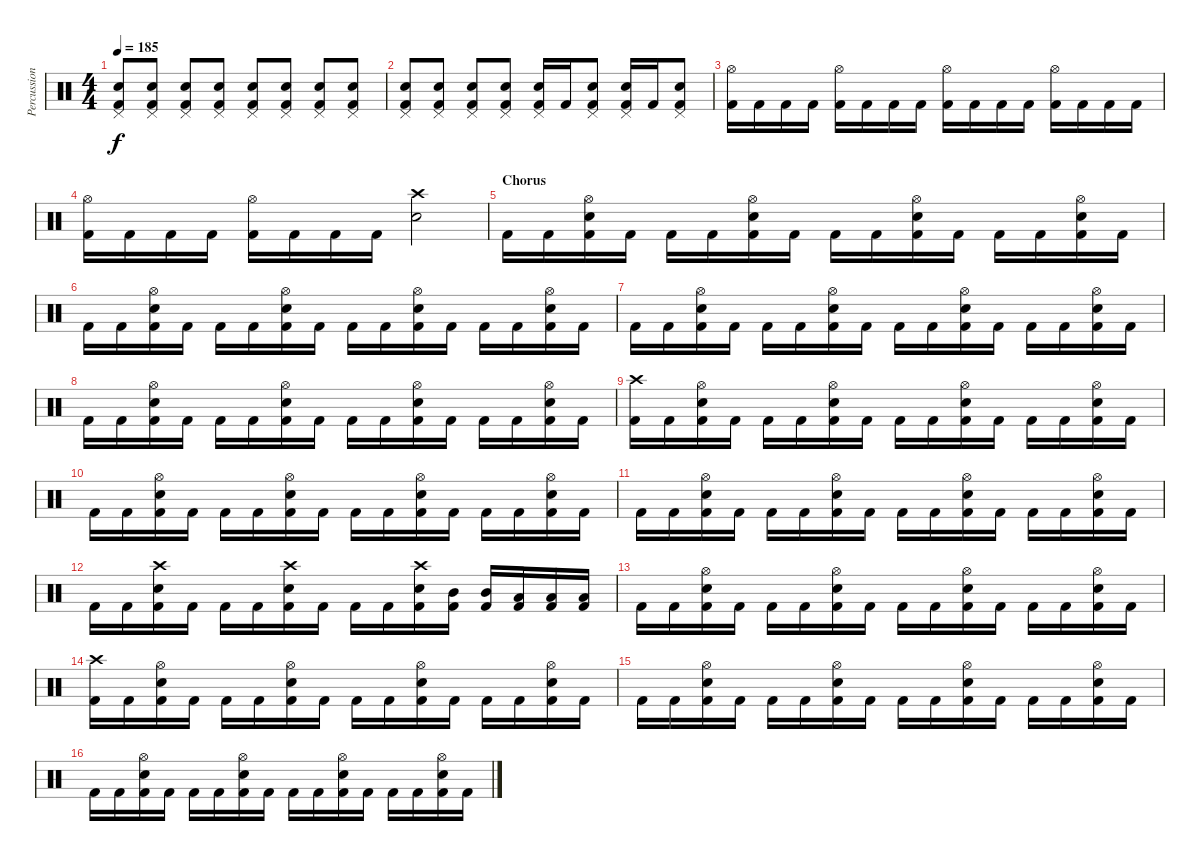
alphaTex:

\track ("Percussions" "Percussion") {instrument percussion}
\staff {score}
\articulation defaults
\ts (4 4)
\tempo 185
\clef neutral
\ks c
("Pedal Hi-Hat (hit)" "Snare (hit) 2" "Kick (hit) 2").8{dy f} ("Pedal Hi-Hat (hit)" "Snare (hit) 2" "Kick (hit) 2").8 ("Pedal Hi-Hat (hit)" "Snare (hit) 2" "Kick (hit) 2").8 ("Pedal Hi-Hat (hit)" "Snare (hit) 2" "Kick (hit) 2").8 ("Pedal Hi-Hat (hit)" "Snare (hit) 2" "Kick (hit) 2").8 ("Pedal Hi-Hat (hit)" "Snare (hit) 2" "Kick (hit) 2").8 ("Pedal Hi-Hat (hit)" "Snare (hit) 2" "Kick (hit) 2").8 ("Pedal Hi-Hat (hit)" "Snare (hit) 2" "Kick (hit) 2").8 |
("Pedal Hi-Hat (hit)" "Snare (hit) 2" "Kick (hit) 2").8 ("Pedal Hi-Hat (hit)" "Snare (hit) 2" "Kick (hit) 2").8 ("Pedal Hi-Hat (hit)" "Snare (hit) 2" "Kick (hit) 2").8 ("Pedal Hi-Hat (hit)" "Snare (hit) 2" "Kick (hit) 2").8 ("Pedal Hi-Hat (hit)" "Snare (hit) 2" "Kick (hit) 2").16 "Kick (hit) 2".16 ("Pedal Hi-Hat (hit)" "Snare (hit) 2" "Kick (hit) 2").8 ("Pedal Hi-Hat (hit)" "Snare (hit) 2" "Kick (hit) 2").16 "Kick (hit) 2".16 ("Pedal Hi-Hat (hit)" "Snare (hit) 2" "Kick (hit) 2").8 |
("Hi-Hat (open)" "Kick (hit) 2").16 "Kick (hit) 2".16 "Kick (hit) 2".16 "Kick (hit) 2".16 ("Hi-Hat (open)" "Kick (hit) 2").16 "Kick (hit) 2".16 "Kick (hit) 2".16 "Kick (hit) 2".16 ("Hi-Hat (open)" "Kick (hit) 2").16 "Kick (hit) 2".16 "Kick (hit) 2".16 "Kick (hit) 2".16 ("Hi-Hat (open)" "Kick (hit) 2").16 "Kick (hit) 2".16 "Kick (hit) 2".16 "Kick (hit) 2".16 |
("Hi-Hat (open)" "Kick (hit) 2").16 "Kick (hit) 2".16 "Kick (hit) 2".16 "Kick (hit) 2".16 ("Hi-Hat (open)" "Kick (hit) 2").16 "Kick (hit) 2".16 "Kick (hit) 2".16 "Kick (hit) 2".16 ("Crash high (hit)" "Snare (hit) 2").2 |
\section ("" "Chorus")
"Kick (hit) 2".16 "Kick (hit) 2".16 ("Hi-Hat (open)" "Snare (hit) 2" "Kick (hit) 2").16 "Kick (hit) 2".16 "Kick (hit) 2".16 "Kick (hit) 2".16 ("Hi-Hat (open)" "Snare (hit) 2" "Kick (hit) 2").16 "Kick (hit) 2".16 "Kick (hit) 2".16 "Kick (hit) 2".16 ("Hi-Hat (open)" "Snare (hit) 2" "Kick (hit) 2").16 "Kick (hit) 2".16 "Kick (hit) 2".16 "Kick (hit) 2".16 ("Hi-Hat (open)" "Snare (hit) 2" "Kick (hit) 2").16 "Kick (hit) 2".16 |
"Kick (hit) 2".16 "Kick (hit) 2".16 ("Hi-Hat (open)" "Snare (hit) 2" "Kick (hit) 2").16 "Kick (hit) 2".16 "Kick (hit) 2".16 "Kick (hit) 2".16 ("Hi-Hat (open)" "Snare (hit) 2" "Kick (hit) 2").16 "Kick (hit) 2".16 "Kick (hit) 2".16 "Kick (hit) 2".16 ("Hi-Hat (open)" "Snare (hit) 2" "Kick (hit) 2").16 "Kick (hit) 2".16 "Kick (hit) 2".16 "Kick (hit) 2".16 ("Hi-Hat (open)" "Snare (hit) 2" "Kick (hit) 2").16 "Kick (hit) 2".16 |
"Kick (hit) 2".16 "Kick (hit) 2".16 ("Hi-Hat (open)" "Snare (hit) 2" "Kick (hit) 2").16 "Kick (hit) 2".16 "Kick (hit) 2".16 "Kick (hit) 2".16 ("Hi-Hat (open)" "Snare (hit) 2" "Kick (hit) 2").16 "Kick (hit) 2".16 "Kick (hit) 2".16 "Kick (hit) 2".16 ("Hi-Hat (open)" "Snare (hit) 2" "Kick (hit) 2").16 "Kick (hit) 2".16 "Kick (hit) 2".16 "Kick (hit) 2".16 ("Hi-Hat (open)" "Snare (hit) 2" "Kick (hit) 2").16 "Kick (hit) 2".16 |
"Kick (hit) 2".16 "Kick (hit) 2".16 ("Hi-Hat (open)" "Snare (hit) 2" "Kick (hit) 2").16 "Kick (hit) 2".16 "Kick (hit) 2".16 "Kick (hit) 2".16 ("Hi-Hat (open)" "Snare (hit) 2" "Kick (hit) 2").16 "Kick (hit) 2".16 "Kick (hit) 2".16 "Kick (hit) 2".16 ("Hi-Hat (open)" "Snare (hit) 2" "Kick (hit) 2").16 "Kick (hit) 2".16 "Kick (hit) 2".16 "Kick (hit) 2".16 ("Hi-Hat (open)" "Snare (hit) 2" "Kick (hit) 2").16 "Kick (hit) 2".16 |
("Crash high (hit)" "Kick (hit) 2").16 "Kick (hit) 2".16 ("Hi-Hat (open)" "Snare (hit) 2" "Kick (hit) 2").16 "Kick (hit) 2".16 "Kick (hit) 2".16 "Kick (hit) 2".16 ("Hi-Hat (open)" "Snare (hit) 2" "Kick (hit) 2").16 "Kick (hit) 2".16 "Kick (hit) 2".16 "Kick (hit) 2".16 ("Hi-Hat (open)" "Snare (hit) 2" "Kick (hit) 2").16 "Kick (hit) 2".16 "Kick (hit) 2".16 "Kick (hit) 2".16 ("Hi-Hat (open)" "Snare (hit) 2" "Kick (hit) 2").16 "Kick (hit) 2".16 |
"Kick (hit) 2".16 "Kick (hit) 2".16 ("Hi-Hat (open)" "Snare (hit) 2" "Kick (hit) 2").16 "Kick (hit) 2".16 "Kick (hit) 2".16 "Kick (hit) 2".16 ("Hi-Hat (open)" "Snare (hit) 2" "Kick (hit) 2").16 "Kick (hit) 2".16 "Kick (hit) 2".16 "Kick (hit) 2".16 ("Hi-Hat (open)" "Snare (hit) 2" "Kick (hit) 2").16 "Kick (hit) 2".16 "Kick (hit) 2".16 "Kick (hit) 2".16 ("Hi-Hat (open)" "Snare (hit) 2" "Kick (hit) 2").16 "Kick (hit) 2".16 |
"Kick (hit) 2".16 "Kick (hit) 2".16 ("Hi-Hat (open)" "Snare (hit) 2" "Kick (hit) 2").16 "Kick (hit) 2".16 "Kick (hit) 2".16 "Kick (hit) 2".16 ("Hi-Hat (open)" "Snare (hit) 2" "Kick (hit) 2").16 "Kick (hit) 2".16 "Kick (hit) 2".16 "Kick (hit) 2".16 ("Hi-Hat (open)" "Snare (hit) 2" "Kick (hit) 2").16 "Kick (hit) 2".16 "Kick (hit) 2".16 "Kick (hit) 2".16 ("Hi-Hat (open)" "Snare (hit) 2" "Kick (hit) 2").16 "Kick (hit) 2".16 |
"Kick (hit) 2".16 "Kick (hit) 2".16 ("Crash high (hit)" "Snare (hit) 2" "Kick (hit) 2").16 "Kick (hit) 2".16 "Kick (hit) 2".16 "Kick (hit) 2".16 ("Crash high (hit)" "Snare (hit) 2" "Kick (hit) 2").16 "Kick (hit) 2".16 "Kick (hit) 2".16 "Kick (hit) 2".16 ("Crash high (hit)" "Snare (hit) 2" "Kick (hit) 2").16 ("Mid Tom (hit)" "Kick (hit) 2").16 ("Mid Tom (hit)" "Kick (hit) 2").16 ("Low Tom (hit)" "Kick (hit) 2").16 ("Low Tom (hit)" "Kick (hit) 2").16 ("Low Tom (hit)" "Kick (hit) 2").16 |
"Kick (hit) 2".16 "Kick (hit) 2".16 ("Hi-Hat (open)" "Snare (hit) 2" "Kick (hit) 2").16 "Kick (hit) 2".16 "Kick (hit) 2".16 "Kick (hit) 2".16 ("Hi-Hat (open)" "Snare (hit) 2" "Kick (hit) 2").16 "Kick (hit) 2".16 "Kick (hit) 2".16 "Kick (hit) 2".16 ("Hi-Hat (open)" "Snare (hit) 2" "Kick (hit) 2").16 "Kick (hit) 2".16 "Kick (hit) 2".16 "Kick (hit) 2".16 ("Hi-Hat (open)" "Snare (hit) 2" "Kick (hit) 2").16 "Kick (hit) 2".16 |
("Crash high (hit)" "Kick (hit) 2").16 "Kick (hit) 2".16 ("Hi-Hat (open)" "Snare (hit) 2" "Kick (hit) 2").16 "Kick (hit) 2".16 "Kick (hit) 2".16 "Kick (hit) 2".16 ("Hi-Hat (open)" "Snare (hit) 2" "Kick (hit) 2").16 "Kick (hit) 2".16 "Kick (hit) 2".16 "Kick (hit) 2".16 ("Hi-Hat (open)" "Snare (hit) 2" "Kick (hit) 2").16 "Kick (hit) 2".16 "Kick (hit) 2".16 "Kick (hit) 2".16 ("Hi-Hat (open)" "Snare (hit) 2" "Kick (hit) 2").16 "Kick (hit) 2".16 |
"Kick (hit) 2".16 "Kick (hit) 2".16 ("Hi-Hat (open)" "Snare (hit) 2" "Kick (hit) 2").16 "Kick (hit) 2".16 "Kick (hit) 2".16 "Kick (hit) 2".16 ("Hi-Hat (open)" "Snare (hit) 2" "Kick (hit) 2").16 "Kick (hit) 2".16 "Kick (hit) 2".16 "Kick (hit) 2".16 ("Hi-Hat (open)" "Snare (hit) 2" "Kick (hit) 2").16 "Kick (hit) 2".16 "Kick (hit) 2".16 "Kick (hit) 2".16 ("Hi-Hat (open)" "Snare (hit) 2" "Kick (hit) 2").16 "Kick (hit) 2".16 |
"Kick (hit) 2".16 "Kick (hit) 2".16 ("Hi-Hat (open)" "Snare (hit) 2" "Kick (hit) 2").16 "Kick (hit) 2".16 "Kick (hit) 2".16 "Kick (hit) 2".16 ("Hi-Hat (open)" "Snare (hit) 2" "Kick (hit) 2").16 "Kick (hit) 2".16 "Kick (hit) 2".16 "Kick (hit) 2".16 ("Hi-Hat (open)" "Snare (hit) 2" "Kick (hit) 2").16 "Kick (hit) 2".16 "Kick (hit) 2".16 "Kick (hit) 2".16 ("Hi-Hat (open)" "Snare (hit) 2" "Kick (hit) 2").16 "Kick (hit) 2".16
